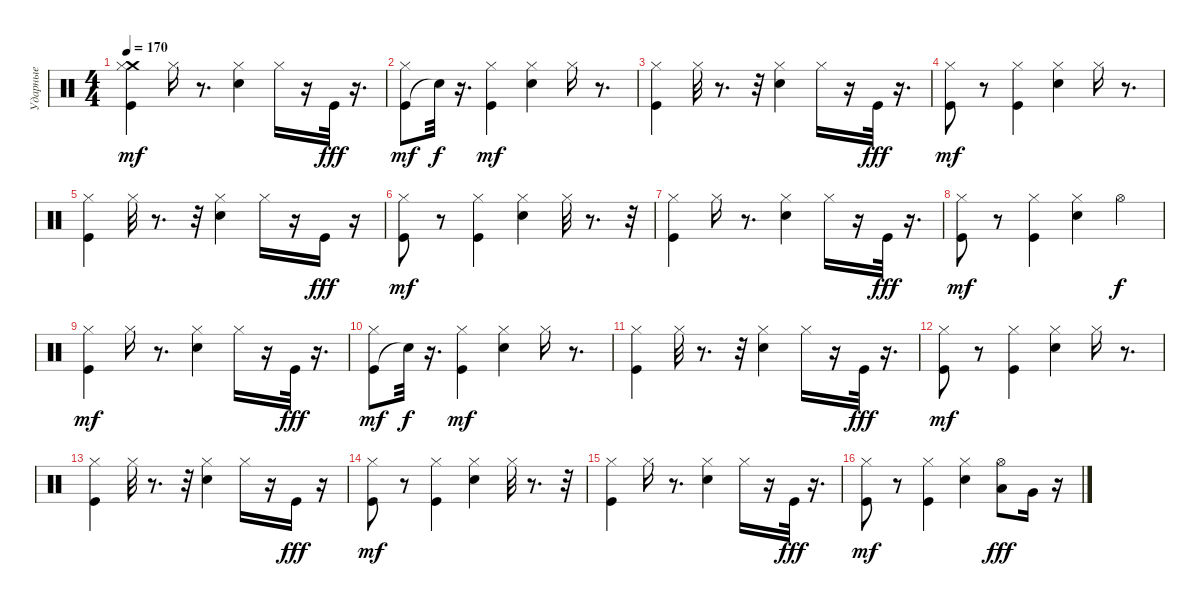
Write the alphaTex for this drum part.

\track ("Ударные" "Ударные") {instrument percussion}
\staff {score}
\articulation defaults
\ts (4 4)
\tempo 170
\clef neutral
\ks c
("Kick (hit)" "Crash medium (hit)" "Hi-Hat (closed)").4{dy mf} "Hi-Hat (closed)".16 r.8{d} ("Snare (hit) 2" "Hi-Hat (closed)").4 "Hi-Hat (closed)".16 r.16 "Kick (hit)".32{dy fff} r.16{d} |
("Kick (hit)" "Hi-Hat (closed)").8{dy mf} "Snare (hit)"{t}.32{dy f} r.16{d} ("Kick (hit)" "Hi-Hat (closed)").4{dy mf} ("Snare (hit) 2" "Hi-Hat (closed)").4 "Hi-Hat (closed)".16 r.8{d} |
("Kick (hit)" "Hi-Hat (closed)").4 "Hi-Hat (closed)".32 r.8{d} r.32 ("Snare (hit) 2" "Hi-Hat (closed)").4 "Hi-Hat (closed)".16 r.16 "Kick (hit)".32{dy fff} r.16{d} |
("Kick (hit)" "Hi-Hat (closed)").8{dy mf} r.8 ("Kick (hit)" "Hi-Hat (closed)").4 ("Snare (hit) 2" "Hi-Hat (closed)").4 "Hi-Hat (closed)".16 r.8{d} |
("Kick (hit)" "Hi-Hat (closed)").4 "Hi-Hat (closed)".32 r.8{d} r.32 ("Snare (hit) 2" "Hi-Hat (closed)").4 "Hi-Hat (closed)".16 r.16 "Kick (hit)".16{dy fff} r.16 |
("Kick (hit)" "Hi-Hat (closed)").8{dy mf} r.8 ("Kick (hit)" "Hi-Hat (closed)").4 ("Snare (hit) 2" "Hi-Hat (closed)").4 "Hi-Hat (closed)".32 r.8{d} r.32 |
("Kick (hit)" "Hi-Hat (closed)").4 "Hi-Hat (closed)".16 r.8{d} ("Snare (hit) 2" "Hi-Hat (closed)").4 "Hi-Hat (closed)".16 r.16 "Kick (hit)".32{dy fff} r.16{d} |
("Kick (hit)" "Hi-Hat (closed)").8{dy mf} r.8 ("Kick (hit)" "Hi-Hat (closed)").4 ("Snare (hit) 2" "Hi-Hat (closed)").4 "Hi-Hat (open)".4{dy f} |
("Kick (hit)" "Hi-Hat (closed)").4{dy mf} "Hi-Hat (closed)".16 r.8{d} ("Snare (hit) 2" "Hi-Hat (closed)").4 "Hi-Hat (closed)".16 r.16 "Kick (hit)".32{dy fff} r.16{d} |
("Kick (hit)" "Hi-Hat (closed)").8{dy mf} "Snare (hit)"{t}.32{dy f} r.16{d} ("Kick (hit)" "Hi-Hat (closed)").4{dy mf} ("Snare (hit) 2" "Hi-Hat (closed)").4 "Hi-Hat (closed)".16 r.8{d} |
("Kick (hit)" "Hi-Hat (closed)").4 "Hi-Hat (closed)".32 r.8{d} r.32 ("Snare (hit) 2" "Hi-Hat (closed)").4 "Hi-Hat (closed)".16 r.16 "Kick (hit)".32{dy fff} r.16{d} |
("Kick (hit)" "Hi-Hat (closed)").8{dy mf} r.8 ("Kick (hit)" "Hi-Hat (closed)").4 ("Snare (hit) 2" "Hi-Hat (closed)").4 "Hi-Hat (closed)".16 r.8{d} |
("Kick (hit)" "Hi-Hat (closed)").4 "Hi-Hat (closed)".32 r.8{d} r.32 ("Snare (hit) 2" "Hi-Hat (closed)").4 "Hi-Hat (closed)".16 r.16 "Kick (hit)".16{dy fff} r.16 |
("Kick (hit)" "Hi-Hat (closed)").8{dy mf} r.8 ("Kick (hit)" "Hi-Hat (closed)").4 ("Snare (hit) 2" "Hi-Hat (closed)").4 "Hi-Hat (closed)".32 r.8{d} r.32 |
("Kick (hit)" "Hi-Hat (closed)").4 "Hi-Hat (closed)".16 r.8{d} ("Snare (hit) 2" "Hi-Hat (closed)").4 "Hi-Hat (closed)".16 r.16 "Kick (hit)".32{dy fff} r.16{d} |
("Kick (hit)" "Hi-Hat (closed)").8{dy mf} r.8 ("Kick (hit)" "Hi-Hat (closed)").4 ("Snare (hit) 2" "Hi-Hat (closed)").4 ("Low Tom (hit)" "Hi-Hat (open)").8{dy fff} "Very Low Tom (hit)".16 r.16
